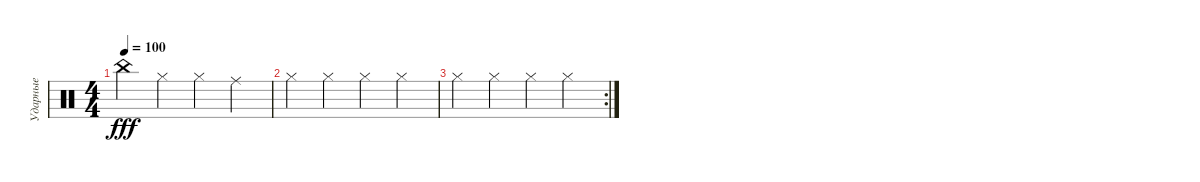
\track ("Ударные" "Ударные") {instrument percussion}
\staff {score}
\articulation defaults
\ts (4 4)
\tempo 100
\clef neutral
\ks c "China (hit)".4{dy fff} "Hi-Hat (closed)".4 "Hi-Hat (closed)".4 "Ride (middle)".4
|
"Hi-Hat (closed)".4 "Hi-Hat (closed)".4 "Hi-Hat (closed)".4 "Hi-Hat (closed)".4 |
\rc 2 "Hi-Hat (closed)".4 "Hi-Hat (closed)".4 "Hi-Hat (closed)".4 "Hi-Hat (closed)".4
